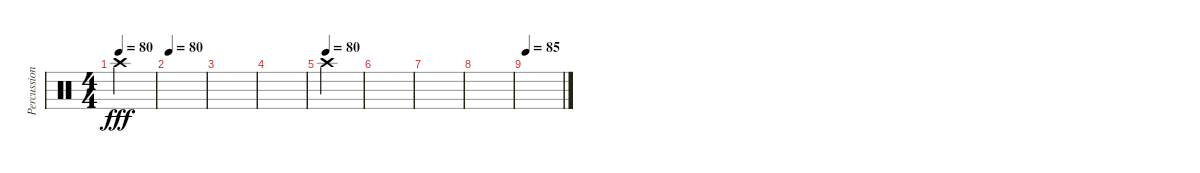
\track ("Percussions" "Percussion") {instrument percussion}
\staff {score}
\articulation defaults
\ts (4 4)
\tempo 80
\clef neutral
\ks c "Crash high (hit)".4{dy fff}
|
\tempo 80
|
|
|
\tempo (80)
"Crash high (hit)".4 |
|
|
|
\tempo 85
